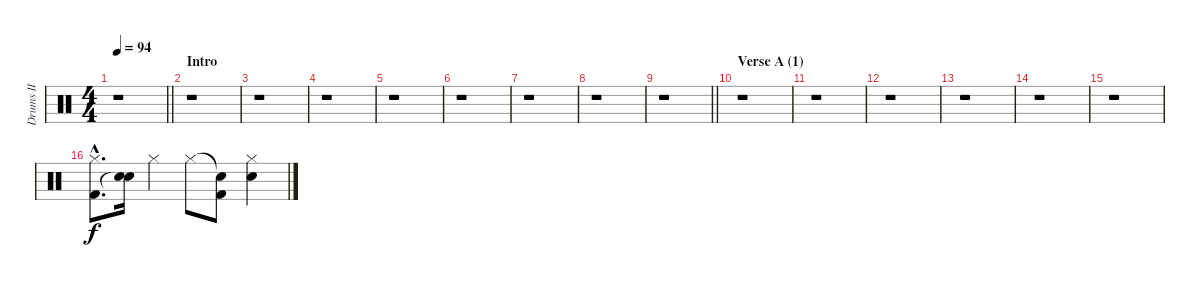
\track ("Drums II" "Drums II") {instrument percussion}
\staff {score}
\articulation defaults
\ts (4 4)
\tempo 94
\clef neutral
\barLineRight lightlight
\ks aminor
r.1{dy f} |
\section ("" "Intro")
r.1 |
r.1 |
r.1 |
r.1 |
r.1 |
r.1 |
r.1 |
\barLineRight lightlight
r.1 |
\section ("" "Verse A (1)")
r.1 |
r.1 |
r.1 |
r.1 |
r.1 |
r.1 |
("Hi-Hat (closed)"{hac} "Kick (hit) 2"{hac}).8{d} ("Electric Snare (hit)" "Snare (hit)"{t}).16 "Hi-Hat (closed)".4 "Hi-Hat (closed)".8 ("Snare (hit)"{t} "Kick (hit) 2").8 ("Hi-Hat (closed)" "Electric Snare (hit)").4
